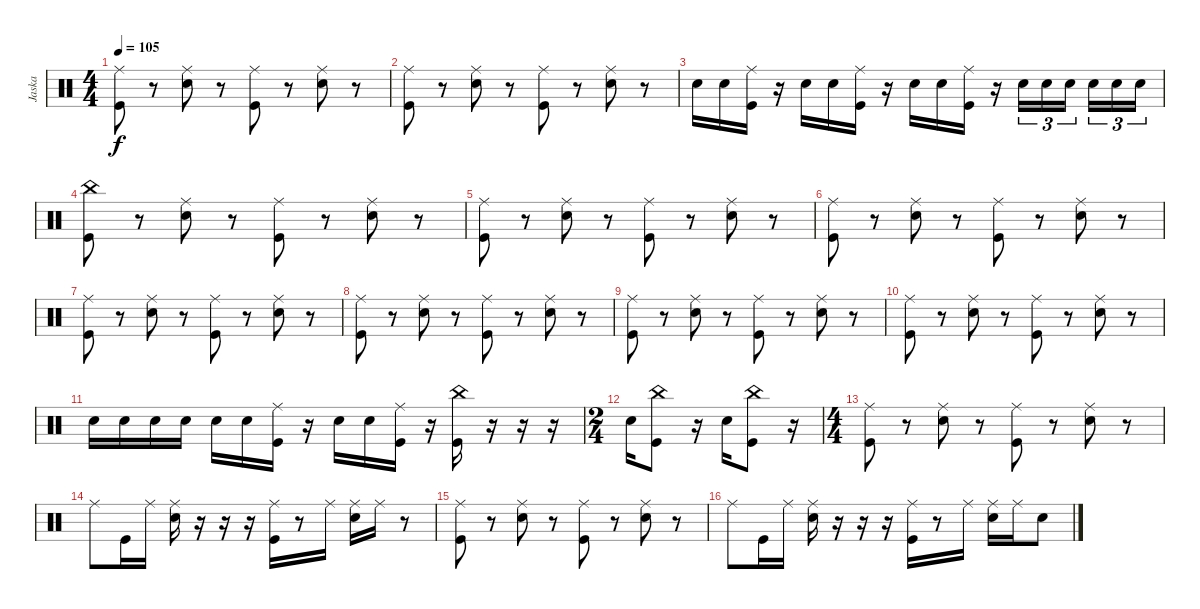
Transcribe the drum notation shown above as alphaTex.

\track ("Jaska" "Jaska") {instrument percussion}
\staff {score}
\articulation defaults
\ts (4 4)
\tempo 105
\clef neutral
\ks c
("Kick (hit)" "Ride (middle)").8{dy f} r.8 ("Snare (hit) 2" "Ride (middle)").8 r.8 ("Kick (hit)" "Ride (middle)").8 r.8 ("Snare (hit) 2" "Ride (middle)").8 r.8 |
("Kick (hit)" "Ride (middle)").8 r.8 ("Snare (hit) 2" "Ride (middle)").8 r.8 ("Kick (hit)" "Ride (middle)").8 r.8 ("Snare (hit) 2" "Ride (middle)").8 r.8 |
"Snare (hit) 2".16 "Snare (hit) 2".16 ("Kick (hit)" "Ride (middle)").16 r.16 "Snare (hit) 2".16 "Snare (hit) 2".16 ("Kick (hit)" "Ride (middle)").16 r.16 "Snare (hit) 2".16 "Snare (hit) 2".16 ("Kick (hit)" "Ride (middle)").16 r.16 "Snare (hit) 2".16{tu (3 2)} "Snare (hit) 2".16{tu (3 2)} "Snare (hit) 2".16{tu (3 2)} "Snare (hit) 2".16{tu (3 2)} "Snare (hit) 2".16{tu (3 2)} "Snare (hit) 2".16{tu (3 2)} |
("Kick (hit)" "China (hit)").8 r.8 ("Snare (hit) 2" "Ride (middle)").8 r.8 ("Kick (hit)" "Ride (middle)").8 r.8 ("Snare (hit) 2" "Ride (middle)").8 r.8 |
("Kick (hit)" "Ride (middle)").8 r.8 ("Snare (hit) 2" "Ride (middle)").8 r.8 ("Kick (hit)" "Ride (middle)").8 r.8 ("Snare (hit) 2" "Ride (middle)").8 r.8 |
("Kick (hit)" "Ride (middle)").8 r.8 ("Snare (hit) 2" "Ride (middle)").8 r.8 ("Kick (hit)" "Ride (middle)").8 r.8 ("Snare (hit) 2" "Ride (middle)").8 r.8 |
("Kick (hit)" "Ride (middle)").8 r.8 ("Snare (hit) 2" "Ride (middle)").8 r.8 ("Kick (hit)" "Ride (middle)").8 r.8 ("Snare (hit) 2" "Ride (middle)").8 r.8 |
("Kick (hit)" "Ride (middle)").8 r.8 ("Snare (hit) 2" "Ride (middle)").8 r.8 ("Kick (hit)" "Ride (middle)").8 r.8 ("Snare (hit) 2" "Ride (middle)").8 r.8 |
("Kick (hit)" "Ride (middle)").8 r.8 ("Snare (hit) 2" "Ride (middle)").8 r.8 ("Kick (hit)" "Ride (middle)").8 r.8 ("Snare (hit) 2" "Ride (middle)").8 r.8 |
("Kick (hit)" "Ride (middle)").8 r.8 ("Snare (hit) 2" "Ride (middle)").8 r.8 ("Kick (hit)" "Ride (middle)").8 r.8 ("Snare (hit) 2" "Ride (middle)").8 r.8 |
"Snare (hit) 2".16 "Snare (hit) 2".16 "Snare (hit) 2".16 "Snare (hit) 2".16 "Snare (hit) 2".16 "Snare (hit) 2".16 ("Kick (hit)" "Ride (middle)").16 r.16 "Snare (hit) 2".16 "Snare (hit) 2".16 ("Kick (hit)" "Ride (middle)").16 r.16 ("Kick (hit)" "China (hit)").16 r.16 r.16 r.16 |
\ts (2 4)
"Snare (hit) 2".16 ("Kick (hit)" "China (hit)").8 r.16 "Snare (hit) 2".16 ("Kick (hit)" "China (hit)").8 r.16 |
\ts (4 4)
("Kick (hit)" "Ride (middle)").8 r.8 ("Snare (hit) 2" "Ride (middle)").8 r.8 ("Kick (hit)" "Ride (middle)").8 r.8 ("Snare (hit) 2" "Ride (middle)").8 r.8 |
"Ride (middle)".8 "Kick (hit)".16 "Ride (middle)".16 ("Snare (hit) 2" "Ride (middle)").16 r.16 r.16 r.16 ("Kick (hit)" "Ride (middle)").16 r.8 "Ride (middle)".16 ("Snare (hit) 2" "Ride (middle)").16 "Ride (middle)".16 r.8 |
("Kick (hit)" "Ride (middle)").8 r.8 ("Snare (hit) 2" "Ride (middle)").8 r.8 ("Kick (hit)" "Ride (middle)").8 r.8 ("Snare (hit) 2" "Ride (middle)").8 r.8 |
"Ride (middle)".8 "Kick (hit)".16 "Ride (middle)".16 ("Snare (hit) 2" "Ride (middle)").16 r.16 r.16 r.16 ("Kick (hit)" "Ride (middle)").16 r.8 "Ride (middle)".16 ("Snare (hit) 2" "Ride (middle)").16 "Ride (middle)".16 "Snare (hit) 2".8
